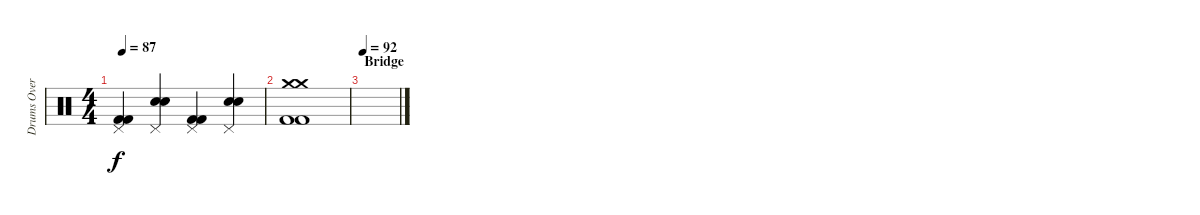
\track ("Drums Overdub" "Drums Over") {instrument percussion}
\staff {score}
\articulation defaults
\ts (4 4)
\tempo 87
\clef neutral
\ks c
("Pedal Hi-Hat (hit)" "Kick (hit) 2" "Kick (hit) 2").4{dy f} ("Snare (hit) 2" "Snare (hit) 2" "Pedal Hi-Hat (hit)").4 ("Pedal Hi-Hat (hit)" "Kick (hit) 2" "Kick (hit) 2").4 ("Snare (hit) 2" "Snare (hit) 2" "Pedal Hi-Hat (hit)").4 |
("Crash medium (hit)" "Crash medium (hit)" "Kick (hit) 2" "Kick (hit) 2").1 |
\section ("" "Bridge")
\tempo 92
